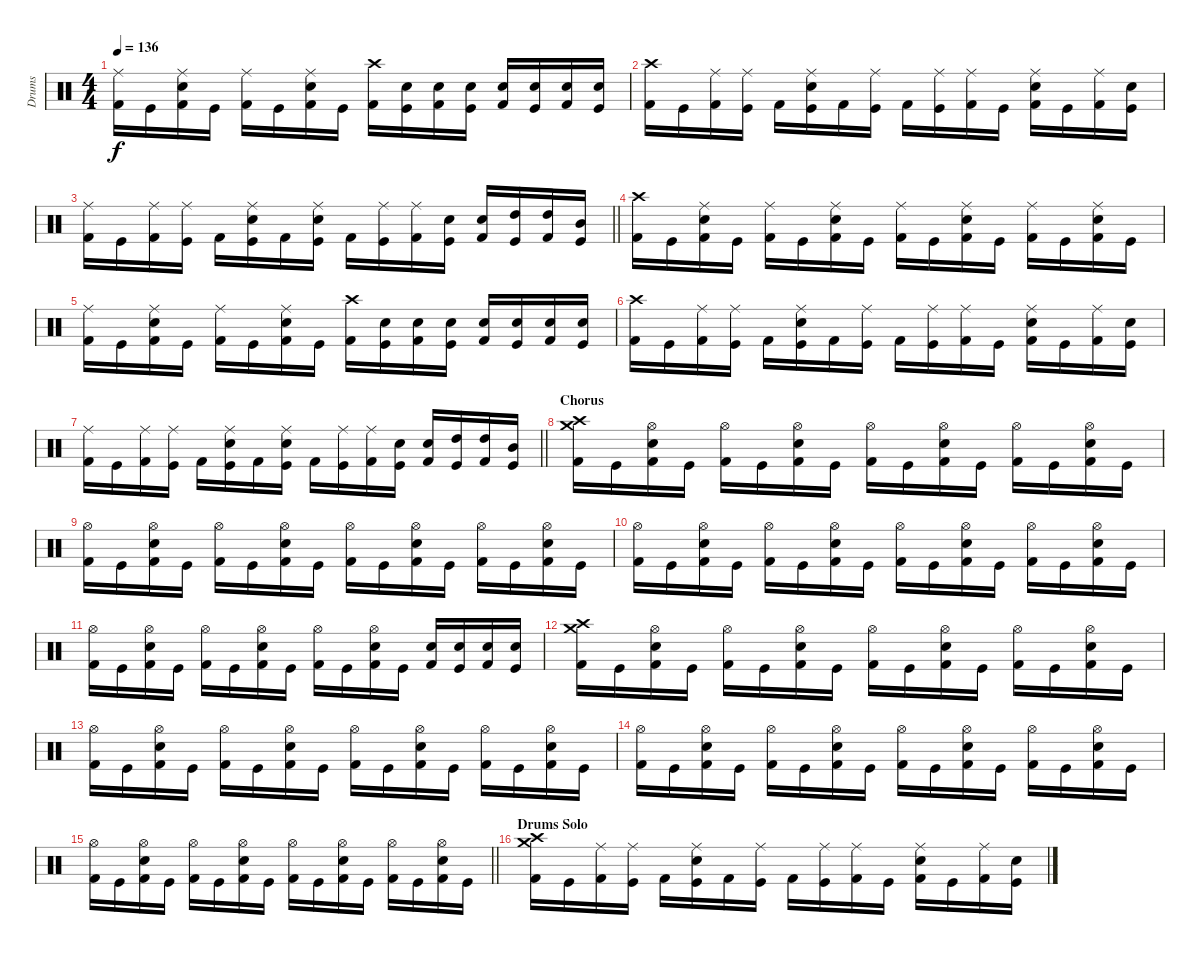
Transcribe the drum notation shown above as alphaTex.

\track ("Drums" "Drums") {instrument percussion}
\staff {score}
\articulation defaults
\ts (4 4)
\tempo 136
\clef neutral
\ks c
("Kick (hit) 2" "Ride (middle)").16{dy f} "Kick (hit)".16 ("Kick (hit) 2" "Snare (hit) 2" "Ride (middle)").16 "Kick (hit)".16 ("Kick (hit) 2" "Ride (middle)").16 "Kick (hit)".16 ("Kick (hit) 2" "Snare (hit) 2" "Ride (middle)").16 "Kick (hit)".16 ("Kick (hit) 2" "Crash high (hit)").16 ("Kick (hit)" "Snare (hit) 2").16 ("Kick (hit) 2" "Snare (hit) 2").16 ("Kick (hit)" "Snare (hit) 2").16 ("Kick (hit) 2" "Snare (hit) 2").16 ("Kick (hit)" "Snare (hit) 2").16 ("Kick (hit) 2" "Snare (hit) 2").16 ("Kick (hit)" "Snare (hit) 2").16 |
("Kick (hit) 2" "Crash high (hit)").16 "Kick (hit)".16 ("Kick (hit) 2" "Ride (middle)").16 ("Kick (hit)" "Ride (middle)").16 "Kick (hit) 2".16 ("Kick (hit)" "Snare (hit) 2" "Ride (middle)").16 "Kick (hit) 2".16 ("Kick (hit)" "Ride (middle)").16 "Kick (hit) 2".16 ("Kick (hit)" "Ride (middle)").16 ("Kick (hit) 2" "Ride (middle)").16 "Kick (hit)".16 ("Kick (hit) 2" "Snare (hit) 2" "Ride (middle)").16 "Kick (hit)".16 ("Kick (hit) 2" "Ride (middle)").16 ("Kick (hit)" "Snare (hit) 2").16 |
\barLineRight lightlight
("Kick (hit) 2" "Ride (middle)").16 "Kick (hit)".16 ("Kick (hit) 2" "Ride (middle)").16 ("Kick (hit)" "Ride (middle)").16 "Kick (hit) 2".16 ("Kick (hit)" "Snare (hit) 2" "Ride (middle)").16 "Kick (hit) 2".16 ("Kick (hit)" "Snare (hit) 2" "Ride (middle)").16 "Kick (hit) 2".16 ("Kick (hit)" "Ride (middle)").16 ("Kick (hit) 2" "Ride (middle)").16 ("Kick (hit)" "Snare (hit) 2").16 ("Kick (hit) 2" "Snare (hit) 2").16 ("Kick (hit)" "High Tom (hit)").16 ("Kick (hit) 2" "High Tom (hit)").16 ("Kick (hit)" "Mid Tom (hit)").16 |
("Kick (hit) 2" "Crash high (hit)").16 "Kick (hit)".16 ("Kick (hit) 2" "Snare (hit) 2" "Ride (middle)").16 "Kick (hit)".16 ("Kick (hit) 2" "Ride (middle)").16 "Kick (hit)".16 ("Kick (hit) 2" "Snare (hit) 2" "Ride (middle)").16 "Kick (hit)".16 ("Kick (hit) 2" "Ride (middle)").16 "Kick (hit)".16 ("Kick (hit) 2" "Snare (hit) 2" "Ride (middle)").16 "Kick (hit)".16 ("Kick (hit) 2" "Ride (middle)").16 "Kick (hit)".16 ("Kick (hit) 2" "Snare (hit) 2" "Ride (middle)").16 "Kick (hit)".16 |
("Kick (hit) 2" "Ride (middle)").16 "Kick (hit)".16 ("Kick (hit) 2" "Snare (hit) 2" "Ride (middle)").16 "Kick (hit)".16 ("Kick (hit) 2" "Ride (middle)").16 "Kick (hit)".16 ("Kick (hit) 2" "Snare (hit) 2" "Ride (middle)").16 "Kick (hit)".16 ("Kick (hit) 2" "Crash high (hit)").16 ("Kick (hit)" "Snare (hit) 2").16 ("Kick (hit) 2" "Snare (hit) 2").16 ("Kick (hit)" "Snare (hit) 2").16 ("Kick (hit) 2" "Snare (hit) 2").16 ("Kick (hit)" "Snare (hit) 2").16 ("Kick (hit) 2" "Snare (hit) 2").16 ("Kick (hit)" "Snare (hit) 2").16 |
("Kick (hit) 2" "Crash high (hit)").16 "Kick (hit)".16 ("Kick (hit) 2" "Ride (middle)").16 ("Kick (hit)" "Ride (middle)").16 "Kick (hit) 2".16 ("Kick (hit)" "Snare (hit) 2" "Ride (middle)").16 "Kick (hit) 2".16 ("Kick (hit)" "Ride (middle)").16 "Kick (hit) 2".16 ("Kick (hit)" "Ride (middle)").16 ("Kick (hit) 2" "Ride (middle)").16 "Kick (hit)".16 ("Kick (hit) 2" "Snare (hit) 2" "Ride (middle)").16 "Kick (hit)".16 ("Kick (hit) 2" "Ride (middle)").16 ("Kick (hit)" "Snare (hit) 2").16 |
\barLineRight lightlight
("Kick (hit) 2" "Ride (middle)").16 "Kick (hit)".16 ("Kick (hit) 2" "Ride (middle)").16 ("Kick (hit)" "Ride (middle)").16 "Kick (hit) 2".16 ("Kick (hit)" "Snare (hit) 2" "Ride (middle)").16 "Kick (hit) 2".16 ("Kick (hit)" "Snare (hit) 2" "Ride (middle)").16 "Kick (hit) 2".16 ("Kick (hit)" "Ride (middle)").16 ("Kick (hit) 2" "Ride (middle)").16 ("Kick (hit)" "Snare (hit) 2").16 ("Kick (hit) 2" "Snare (hit) 2").16 ("Kick (hit)" "High Tom (hit)").16 ("Kick (hit) 2" "High Tom (hit)").16 ("Kick (hit)" "Mid Tom (hit)").16 |
\section ("" "Chorus")
("Kick (hit) 2" "Crash high (hit)" "Crash medium (hit)").16 "Kick (hit)".16 ("Kick (hit) 2" "Snare (hit) 2" "Hi-Hat (open)").16 "Kick (hit)".16 ("Kick (hit) 2" "Hi-Hat (open)").16 "Kick (hit)".16 ("Kick (hit) 2" "Snare (hit) 2" "Hi-Hat (open)").16 "Kick (hit)".16 ("Kick (hit) 2" "Hi-Hat (open)").16 "Kick (hit)".16 ("Kick (hit) 2" "Snare (hit) 2" "Hi-Hat (open)").16 "Kick (hit)".16 ("Kick (hit) 2" "Hi-Hat (open)").16 "Kick (hit)".16 ("Kick (hit) 2" "Snare (hit) 2" "Hi-Hat (open)").16 "Kick (hit)".16 |
("Kick (hit) 2" "Hi-Hat (open)").16 "Kick (hit)".16 ("Kick (hit) 2" "Snare (hit) 2" "Hi-Hat (open)").16 "Kick (hit)".16 ("Kick (hit) 2" "Hi-Hat (open)").16 "Kick (hit)".16 ("Kick (hit) 2" "Snare (hit) 2" "Hi-Hat (open)").16 "Kick (hit)".16 ("Kick (hit) 2" "Hi-Hat (open)").16 "Kick (hit)".16 ("Kick (hit) 2" "Snare (hit) 2" "Hi-Hat (open)").16 "Kick (hit)".16 ("Kick (hit) 2" "Hi-Hat (open)").16 "Kick (hit)".16 ("Kick (hit) 2" "Snare (hit) 2" "Hi-Hat (open)").16 "Kick (hit)".16 |
("Kick (hit) 2" "Hi-Hat (open)").16 "Kick (hit)".16 ("Kick (hit) 2" "Snare (hit) 2" "Hi-Hat (open)").16 "Kick (hit)".16 ("Kick (hit) 2" "Hi-Hat (open)").16 "Kick (hit)".16 ("Kick (hit) 2" "Snare (hit) 2" "Hi-Hat (open)").16 "Kick (hit)".16 ("Kick (hit) 2" "Hi-Hat (open)").16 "Kick (hit)".16 ("Kick (hit) 2" "Snare (hit) 2" "Hi-Hat (open)").16 "Kick (hit)".16 ("Kick (hit) 2" "Hi-Hat (open)").16 "Kick (hit)".16 ("Kick (hit) 2" "Snare (hit) 2" "Hi-Hat (open)").16 "Kick (hit)".16 |
("Kick (hit) 2" "Hi-Hat (open)").16 "Kick (hit)".16 ("Kick (hit) 2" "Snare (hit) 2" "Hi-Hat (open)").16 "Kick (hit)".16 ("Kick (hit) 2" "Hi-Hat (open)").16 "Kick (hit)".16 ("Kick (hit) 2" "Snare (hit) 2" "Hi-Hat (open)").16 "Kick (hit)".16 ("Kick (hit) 2" "Hi-Hat (open)").16 "Kick (hit)".16 ("Kick (hit) 2" "Snare (hit) 2" "Hi-Hat (open)").16 "Kick (hit)".16 ("Kick (hit) 2" "Snare (hit) 2").16 ("Kick (hit)" "Snare (hit) 2").16 ("Kick (hit) 2" "Snare (hit) 2").16 ("Kick (hit)" "Snare (hit) 2").16 |
("Kick (hit) 2" "Crash high (hit)" "Crash medium (hit)").16 "Kick (hit)".16 ("Kick (hit) 2" "Snare (hit) 2" "Hi-Hat (open)").16 "Kick (hit)".16 ("Kick (hit) 2" "Hi-Hat (open)").16 "Kick (hit)".16 ("Kick (hit) 2" "Snare (hit) 2" "Hi-Hat (open)").16 "Kick (hit)".16 ("Kick (hit) 2" "Hi-Hat (open)").16 "Kick (hit)".16 ("Kick (hit) 2" "Snare (hit) 2" "Hi-Hat (open)").16 "Kick (hit)".16 ("Kick (hit) 2" "Hi-Hat (open)").16 "Kick (hit)".16 ("Kick (hit) 2" "Snare (hit) 2" "Hi-Hat (open)").16 "Kick (hit)".16 |
("Kick (hit) 2" "Hi-Hat (open)").16 "Kick (hit)".16 ("Kick (hit) 2" "Snare (hit) 2" "Hi-Hat (open)").16 "Kick (hit)".16 ("Kick (hit) 2" "Hi-Hat (open)").16 "Kick (hit)".16 ("Kick (hit) 2" "Snare (hit) 2" "Hi-Hat (open)").16 "Kick (hit)".16 ("Kick (hit) 2" "Hi-Hat (open)").16 "Kick (hit)".16 ("Kick (hit) 2" "Snare (hit) 2" "Hi-Hat (open)").16 "Kick (hit)".16 ("Kick (hit) 2" "Hi-Hat (open)").16 "Kick (hit)".16 ("Kick (hit) 2" "Snare (hit) 2" "Hi-Hat (open)").16 "Kick (hit)".16 |
("Kick (hit) 2" "Hi-Hat (open)").16 "Kick (hit)".16 ("Kick (hit) 2" "Snare (hit) 2" "Hi-Hat (open)").16 "Kick (hit)".16 ("Kick (hit) 2" "Hi-Hat (open)").16 "Kick (hit)".16 ("Kick (hit) 2" "Snare (hit) 2" "Hi-Hat (open)").16 "Kick (hit)".16 ("Kick (hit) 2" "Hi-Hat (open)").16 "Kick (hit)".16 ("Kick (hit) 2" "Snare (hit) 2" "Hi-Hat (open)").16 "Kick (hit)".16 ("Kick (hit) 2" "Hi-Hat (open)").16 "Kick (hit)".16 ("Kick (hit) 2" "Snare (hit) 2" "Hi-Hat (open)").16 "Kick (hit)".16 |
\barLineRight lightlight
("Kick (hit) 2" "Hi-Hat (open)").16 "Kick (hit)".16 ("Kick (hit) 2" "Snare (hit) 2" "Hi-Hat (open)").16 "Kick (hit)".16 ("Kick (hit) 2" "Hi-Hat (open)").16 "Kick (hit)".16 ("Kick (hit) 2" "Snare (hit) 2" "Hi-Hat (open)").16 "Kick (hit)".16 ("Kick (hit) 2" "Hi-Hat (open)").16 "Kick (hit)".16 ("Kick (hit) 2" "Snare (hit) 2" "Hi-Hat (open)").16 "Kick (hit)".16 ("Kick (hit) 2" "Hi-Hat (open)").16 "Kick (hit)".16 ("Kick (hit) 2" "Snare (hit) 2" "Hi-Hat (open)").16 "Kick (hit)".16 |
\section ("" "Drums Solo")
("Kick (hit) 2" "Crash high (hit)" "Crash medium (hit)").16 "Kick (hit)".16 ("Kick (hit) 2" "Ride (middle)").16 ("Kick (hit)" "Ride (middle)").16 "Kick (hit) 2".16 ("Kick (hit)" "Snare (hit) 2" "Ride (middle)").16 "Kick (hit) 2".16 ("Kick (hit)" "Ride (middle)").16 "Kick (hit) 2".16 ("Kick (hit)" "Ride (middle)").16 ("Kick (hit) 2" "Ride (middle)").16 "Kick (hit)".16 ("Kick (hit) 2" "Snare (hit) 2" "Ride (middle)").16 "Kick (hit)".16 ("Kick (hit) 2" "Ride (middle)").16 ("Kick (hit)" "Snare (hit) 2").16
